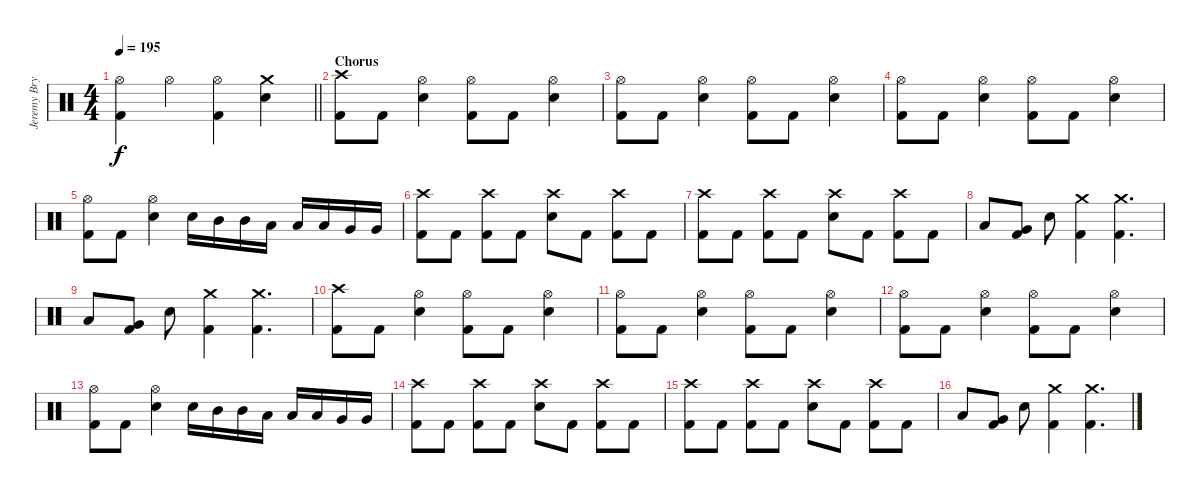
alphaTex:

\track ("Jeremy Bryan - Drums" "Jeremy Bry") {instrument percussion}
\staff {score}
\articulation defaults
\ts (4 4)
\tempo 195
\clef neutral
\barLineRight lightlight
\ks c
("Hi-Hat (open)" "Kick (hit) 2").4{dy f} "Hi-Hat (open)".4 ("Hi-Hat (open)" "Kick (hit) 2").4 ("Crash medium (hit)" "Electric Snare (hit)").4 |
\section ("" "Chorus")
("Crash high (hit)" "Kick (hit) 2").8 "Kick (hit) 2".8 ("Hi-Hat (open)" "Electric Snare (hit)").4 ("Hi-Hat (open)" "Kick (hit) 2").8 "Kick (hit) 2".8 ("Hi-Hat (open)" "Electric Snare (hit)").4 |
("Hi-Hat (open)" "Kick (hit) 2").8 "Kick (hit) 2".8 ("Hi-Hat (open)" "Electric Snare (hit)").4 ("Hi-Hat (open)" "Kick (hit) 2").8 "Kick (hit) 2".8 ("Hi-Hat (open)" "Electric Snare (hit)").4 |
("Hi-Hat (open)" "Kick (hit) 2").8 "Kick (hit) 2".8 ("Hi-Hat (open)" "Electric Snare (hit)").4 ("Hi-Hat (open)" "Kick (hit) 2").8 "Kick (hit) 2".8 ("Hi-Hat (open)" "Electric Snare (hit)").4 |
("Hi-Hat (open)" "Kick (hit) 2").8 "Kick (hit) 2".8 ("Hi-Hat (open)" "Electric Snare (hit)").4 "Electric Snare (hit)".16 "Mid Tom (hit)".16 "Mid Tom (hit)".16 "Low Tom (hit)".16 "Low Tom (hit)".16 "Low Tom (hit)".16 "Very Low Tom (hit)".16 "Very Low Tom (hit)".16 |
("Crash high (hit)" "Kick (hit) 2").8 "Kick (hit) 2".8 ("Crash high (hit)" "Kick (hit) 2").8 "Kick (hit) 2".8 ("Crash high (hit)" "Electric Snare (hit)").8 "Kick (hit) 2".8 ("Crash high (hit)" "Kick (hit) 2").8 "Kick (hit) 2".8 |
("Crash high (hit)" "Kick (hit) 2").8 "Kick (hit) 2".8 ("Crash high (hit)" "Kick (hit) 2").8 "Kick (hit) 2".8 ("Crash high (hit)" "Electric Snare (hit)").8 "Kick (hit) 2".8 ("Crash high (hit)" "Kick (hit) 2").8 "Kick (hit) 2".8 |
"Low Tom (hit)".8 ("Very Low Tom (hit)" "Kick (hit) 2").8 "Electric Snare (hit)".8 ("Crash medium (hit)" "Kick (hit) 2").4 ("Crash medium (hit)" "Kick (hit) 2").4{d} |
"Low Tom (hit)".8 ("Very Low Tom (hit)" "Kick (hit) 2").8 "Electric Snare (hit)".8 ("Crash medium (hit)" "Kick (hit) 2").4 ("Crash medium (hit)" "Kick (hit) 2").4{d} |
("Crash high (hit)" "Kick (hit) 2").8 "Kick (hit) 2".8 ("Hi-Hat (open)" "Electric Snare (hit)").4 ("Hi-Hat (open)" "Kick (hit) 2").8 "Kick (hit) 2".8 ("Hi-Hat (open)" "Electric Snare (hit)").4 |
("Hi-Hat (open)" "Kick (hit) 2").8 "Kick (hit) 2".8 ("Hi-Hat (open)" "Electric Snare (hit)").4 ("Hi-Hat (open)" "Kick (hit) 2").8 "Kick (hit) 2".8 ("Hi-Hat (open)" "Electric Snare (hit)").4 |
("Hi-Hat (open)" "Kick (hit) 2").8 "Kick (hit) 2".8 ("Hi-Hat (open)" "Electric Snare (hit)").4 ("Hi-Hat (open)" "Kick (hit) 2").8 "Kick (hit) 2".8 ("Hi-Hat (open)" "Electric Snare (hit)").4 |
("Hi-Hat (open)" "Kick (hit) 2").8 "Kick (hit) 2".8 ("Hi-Hat (open)" "Electric Snare (hit)").4 "Electric Snare (hit)".16 "Mid Tom (hit)".16 "Mid Tom (hit)".16 "Low Tom (hit)".16 "Low Tom (hit)".16 "Low Tom (hit)".16 "Very Low Tom (hit)".16 "Very Low Tom (hit)".16 |
("Crash high (hit)" "Kick (hit) 2").8 "Kick (hit) 2".8 ("Crash high (hit)" "Kick (hit) 2").8 "Kick (hit) 2".8 ("Crash high (hit)" "Electric Snare (hit)").8 "Kick (hit) 2".8 ("Crash high (hit)" "Kick (hit) 2").8 "Kick (hit) 2".8 |
("Crash high (hit)" "Kick (hit) 2").8 "Kick (hit) 2".8 ("Crash high (hit)" "Kick (hit) 2").8 "Kick (hit) 2".8 ("Crash high (hit)" "Electric Snare (hit)").8 "Kick (hit) 2".8 ("Crash high (hit)" "Kick (hit) 2").8 "Kick (hit) 2".8 |
"Low Tom (hit)".8 ("Very Low Tom (hit)" "Kick (hit) 2").8 "Electric Snare (hit)".8 ("Crash medium (hit)" "Kick (hit) 2").4 ("Crash medium (hit)" "Kick (hit) 2").4{d}
